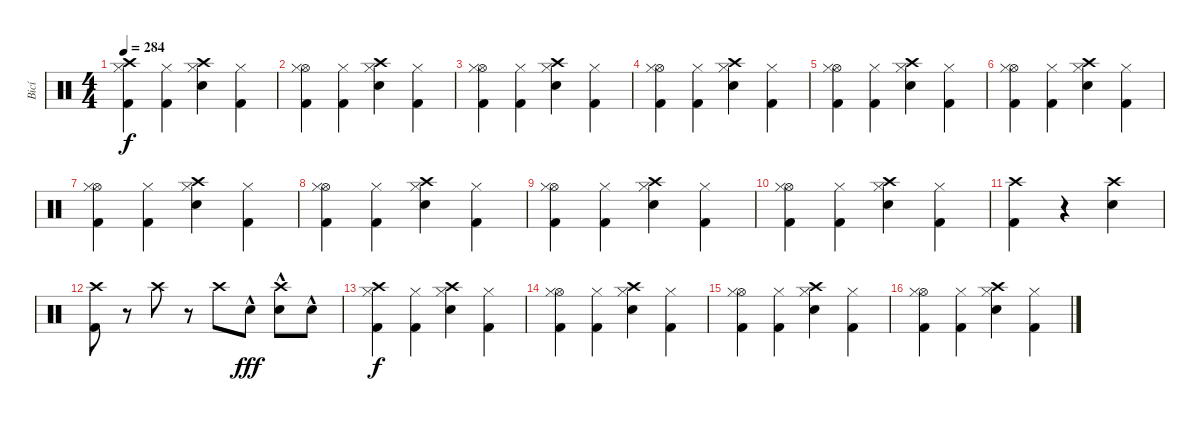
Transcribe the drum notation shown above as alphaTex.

\track ("Bicí" "Bicí") {instrument percussion}
\staff {score}
\articulation defaults
\ts (4 4)
\tempo 284
\clef neutral
\ks c
("Crash high (hit)" "Hi-Hat (closed)" "Kick (hit) 2").4{dy f} ("Hi-Hat (closed)" "Kick (hit) 2").4 ("Crash high (hit)" "Hi-Hat (closed)" "Electric Snare (hit)").4 ("Hi-Hat (closed)" "Kick (hit) 2").4 |
("Hi-Hat (open)" "Hi-Hat (closed)" "Kick (hit) 2").4 ("Hi-Hat (closed)" "Kick (hit) 2").4 ("Crash high (hit)" "Hi-Hat (closed)" "Electric Snare (hit)").4 ("Hi-Hat (closed)" "Kick (hit) 2").4 |
("Hi-Hat (open)" "Hi-Hat (closed)" "Kick (hit) 2").4 ("Hi-Hat (closed)" "Kick (hit) 2").4 ("Crash high (hit)" "Hi-Hat (closed)" "Electric Snare (hit)").4 ("Hi-Hat (closed)" "Kick (hit) 2").4 |
("Hi-Hat (open)" "Hi-Hat (closed)" "Kick (hit) 2").4 ("Hi-Hat (closed)" "Kick (hit) 2").4 ("Crash high (hit)" "Hi-Hat (closed)" "Electric Snare (hit)").4 ("Hi-Hat (closed)" "Kick (hit) 2").4 |
("Hi-Hat (open)" "Hi-Hat (closed)" "Kick (hit) 2").4 ("Hi-Hat (closed)" "Kick (hit) 2").4 ("Crash high (hit)" "Hi-Hat (closed)" "Electric Snare (hit)").4 ("Hi-Hat (closed)" "Kick (hit) 2").4 |
("Hi-Hat (open)" "Hi-Hat (closed)" "Kick (hit) 2").4 ("Hi-Hat (closed)" "Kick (hit) 2").4 ("Crash high (hit)" "Hi-Hat (closed)" "Electric Snare (hit)").4 ("Hi-Hat (closed)" "Kick (hit) 2").4 |
("Hi-Hat (open)" "Hi-Hat (closed)" "Kick (hit) 2").4 ("Hi-Hat (closed)" "Kick (hit) 2").4 ("Crash high (hit)" "Hi-Hat (closed)" "Electric Snare (hit)").4 ("Hi-Hat (closed)" "Kick (hit) 2").4 |
("Hi-Hat (open)" "Hi-Hat (closed)" "Kick (hit) 2").4 ("Hi-Hat (closed)" "Kick (hit) 2").4 ("Crash high (hit)" "Hi-Hat (closed)" "Electric Snare (hit)").4 ("Hi-Hat (closed)" "Kick (hit) 2").4 |
("Hi-Hat (open)" "Hi-Hat (closed)" "Kick (hit) 2").4 ("Hi-Hat (closed)" "Kick (hit) 2").4 ("Crash high (hit)" "Hi-Hat (closed)" "Electric Snare (hit)").4 ("Hi-Hat (closed)" "Kick (hit) 2").4 |
("Hi-Hat (open)" "Hi-Hat (closed)" "Kick (hit) 2").4 ("Hi-Hat (closed)" "Kick (hit) 2").4 ("Crash high (hit)" "Hi-Hat (closed)" "Electric Snare (hit)").4 ("Hi-Hat (closed)" "Kick (hit) 2").4 |
("Crash high (hit)" "Kick (hit) 2").4 r.4 ("Crash high (hit)" "Electric Snare (hit)").4 |
("Crash high (hit)" "Kick (hit) 2").8 r.8 "Crash high (hit)".8 r.8 "Crash high (hit)".8 "Electric Snare (hit)"{hac}.8{dy fff} ("Crash high (hit)" "Electric Snare (hit)"{hac}).8 "Electric Snare (hit)"{hac}.8 |
("Crash high (hit)" "Hi-Hat (closed)" "Kick (hit) 2").4{dy f} ("Hi-Hat (closed)" "Kick (hit) 2").4 ("Crash high (hit)" "Hi-Hat (closed)" "Electric Snare (hit)").4 ("Hi-Hat (closed)" "Kick (hit) 2").4 |
("Hi-Hat (open)" "Hi-Hat (closed)" "Kick (hit) 2").4 ("Hi-Hat (closed)" "Kick (hit) 2").4 ("Crash high (hit)" "Hi-Hat (closed)" "Electric Snare (hit)").4 ("Hi-Hat (closed)" "Kick (hit) 2").4 |
("Hi-Hat (open)" "Hi-Hat (closed)" "Kick (hit) 2").4 ("Hi-Hat (closed)" "Kick (hit) 2").4 ("Crash high (hit)" "Hi-Hat (closed)" "Electric Snare (hit)").4 ("Hi-Hat (closed)" "Kick (hit) 2").4 |
("Hi-Hat (open)" "Hi-Hat (closed)" "Kick (hit) 2").4 ("Hi-Hat (closed)" "Kick (hit) 2").4 ("Crash high (hit)" "Hi-Hat (closed)" "Electric Snare (hit)").4 ("Hi-Hat (closed)" "Kick (hit) 2").4
